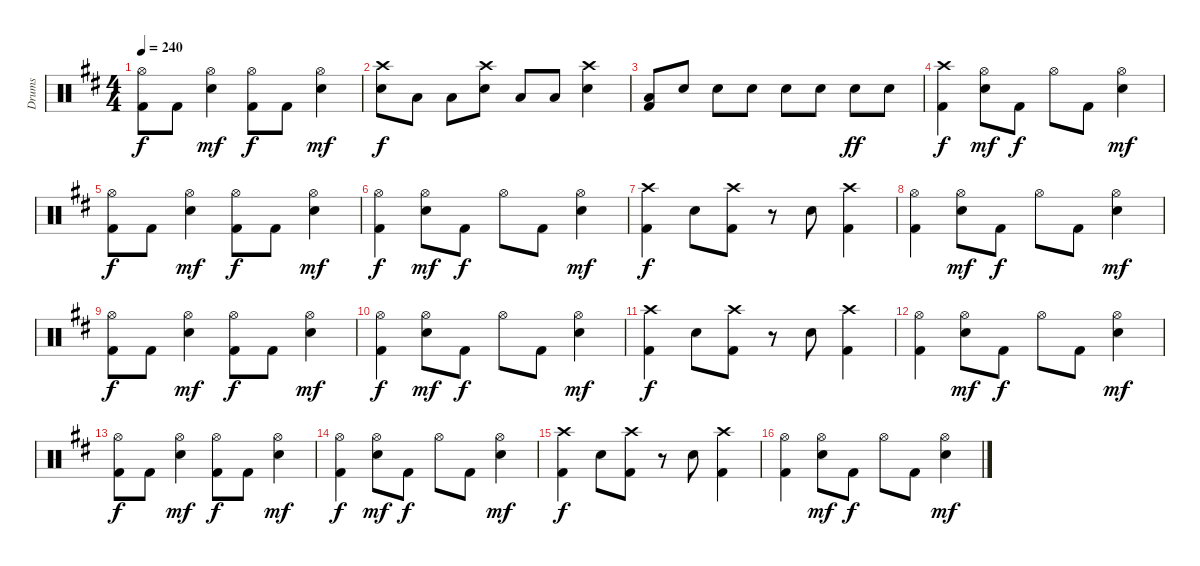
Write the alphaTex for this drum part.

\track ("Drums" "Drums") {instrument percussion}
\staff {score}
\articulation defaults
\ts (4 4)
\tempo 240
\clef neutral
\ks d
("Hi-Hat (open)" "Kick (hit) 2").8{dy f} "Kick (hit) 2".8 ("Hi-Hat (open)" "Electric Snare (hit)").4{dy mf} ("Hi-Hat (open)" "Kick (hit) 2").8{dy f} "Kick (hit) 2".8 ("Hi-Hat (open)" "Electric Snare (hit)").4{dy mf} |
("Crash high (hit)" "Electric Snare (hit)").8{dy f} "Low Tom (hit)".8 "Low Tom (hit)".8 ("Crash high (hit)" "Electric Snare (hit)").8 "Low Tom (hit)".8 "Low Tom (hit)".8 ("Crash high (hit)" "Electric Snare (hit)").4 |
("Low Tom (hit)" "Kick (hit) 2").8 "Electric Snare (hit)".8 "Electric Snare (hit)".8 "Electric Snare (hit)".8 "Electric Snare (hit)".8 "Electric Snare (hit)".8 "Electric Snare (hit)".8{dy ff} "Electric Snare (hit)".8 |
("Crash high (hit)" "Kick (hit) 2").4{dy f} ("Hi-Hat (open)" "Electric Snare (hit)").8{dy mf} "Kick (hit) 2".8{dy f} "Hi-Hat (open)".8 "Kick (hit) 2".8 ("Hi-Hat (open)" "Electric Snare (hit)").4{dy mf} |
("Hi-Hat (open)" "Kick (hit) 2").8{dy f} "Kick (hit) 2".8 ("Hi-Hat (open)" "Electric Snare (hit)").4{dy mf} ("Hi-Hat (open)" "Kick (hit) 2").8{dy f} "Kick (hit) 2".8 ("Hi-Hat (open)" "Electric Snare (hit)").4{dy mf} |
("Hi-Hat (open)" "Kick (hit) 2").4{dy f} ("Hi-Hat (open)" "Electric Snare (hit)").8{dy mf} "Kick (hit) 2".8{dy f} "Hi-Hat (open)".8 "Kick (hit) 2".8 ("Hi-Hat (open)" "Electric Snare (hit)").4{dy mf} |
("Crash high (hit)" "Kick (hit) 2").4{dy f} "Electric Snare (hit)".8 ("Crash high (hit)" "Kick (hit) 2").8 r.8 "Electric Snare (hit)".8 ("Crash high (hit)" "Kick (hit) 2").4 |
("Hi-Hat (open)" "Kick (hit) 2").4 ("Hi-Hat (open)" "Electric Snare (hit)").8{dy mf} "Kick (hit) 2".8{dy f} "Hi-Hat (open)".8 "Kick (hit) 2".8 ("Hi-Hat (open)" "Electric Snare (hit)").4{dy mf} |
("Hi-Hat (open)" "Kick (hit) 2").8{dy f} "Kick (hit) 2".8 ("Hi-Hat (open)" "Electric Snare (hit)").4{dy mf} ("Hi-Hat (open)" "Kick (hit) 2").8{dy f} "Kick (hit) 2".8 ("Hi-Hat (open)" "Electric Snare (hit)").4{dy mf} |
("Hi-Hat (open)" "Kick (hit) 2").4{dy f} ("Hi-Hat (open)" "Electric Snare (hit)").8{dy mf} "Kick (hit) 2".8{dy f} "Hi-Hat (open)".8 "Kick (hit) 2".8 ("Hi-Hat (open)" "Electric Snare (hit)").4{dy mf} |
("Crash high (hit)" "Kick (hit) 2").4{dy f} "Electric Snare (hit)".8 ("Crash high (hit)" "Kick (hit) 2").8 r.8 "Electric Snare (hit)".8 ("Crash high (hit)" "Kick (hit) 2").4 |
("Hi-Hat (open)" "Kick (hit) 2").4 ("Hi-Hat (open)" "Electric Snare (hit)").8{dy mf} "Kick (hit) 2".8{dy f} "Hi-Hat (open)".8 "Kick (hit) 2".8 ("Hi-Hat (open)" "Electric Snare (hit)").4{dy mf} |
("Hi-Hat (open)" "Kick (hit) 2").8{dy f} "Kick (hit) 2".8 ("Hi-Hat (open)" "Electric Snare (hit)").4{dy mf} ("Hi-Hat (open)" "Kick (hit) 2").8{dy f} "Kick (hit) 2".8 ("Hi-Hat (open)" "Electric Snare (hit)").4{dy mf} |
("Hi-Hat (open)" "Kick (hit) 2").4{dy f} ("Hi-Hat (open)" "Electric Snare (hit)").8{dy mf} "Kick (hit) 2".8{dy f} "Hi-Hat (open)".8 "Kick (hit) 2".8 ("Hi-Hat (open)" "Electric Snare (hit)").4{dy mf} |
("Crash high (hit)" "Kick (hit) 2").4{dy f} "Electric Snare (hit)".8 ("Crash high (hit)" "Kick (hit) 2").8 r.8 "Electric Snare (hit)".8 ("Crash high (hit)" "Kick (hit) 2").4 |
("Hi-Hat (open)" "Kick (hit) 2").4 ("Hi-Hat (open)" "Electric Snare (hit)").8{dy mf} "Kick (hit) 2".8{dy f} "Hi-Hat (open)".8 "Kick (hit) 2".8 ("Hi-Hat (open)" "Electric Snare (hit)").4{dy mf}
